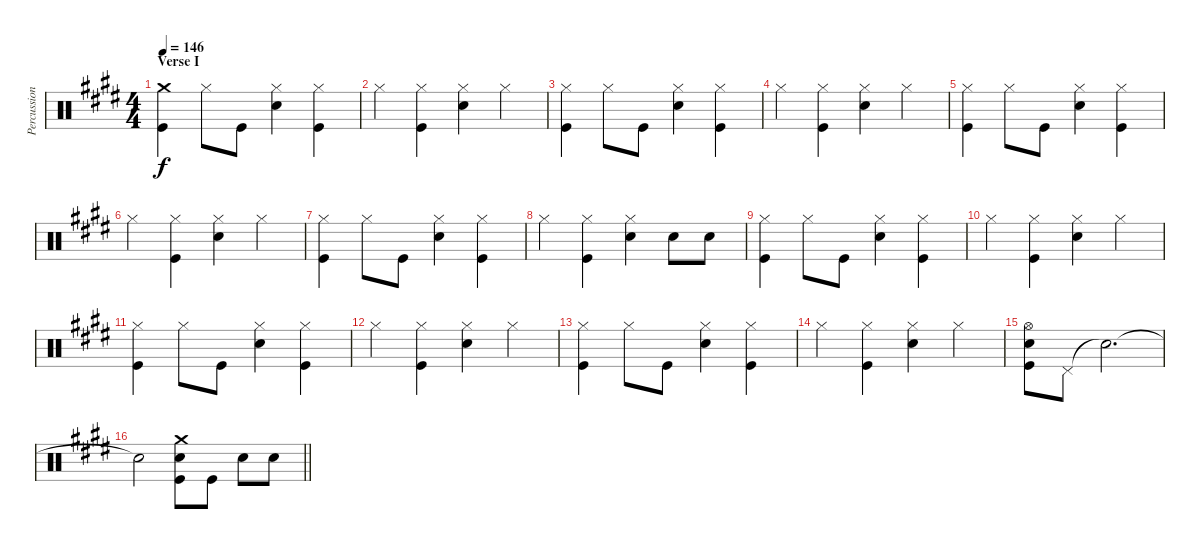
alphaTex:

\track ("Percussion" "Percussion") {instrument percussion}
\staff {score}
\articulation defaults
\ts (4 4)
\section ("" "Verse I")
\tempo 146
\clef neutral
\ks e
("Crash medium (hit)" "Kick (hit)").4{dy f} "Hi-Hat (closed)".8 "Kick (hit)".8 ("Hi-Hat (closed)" "Electric Snare (hit)").4 ("Hi-Hat (closed)" "Kick (hit)").4 |
"Hi-Hat (closed)".4 ("Hi-Hat (closed)" "Kick (hit)").4 ("Hi-Hat (closed)" "Electric Snare (hit)").4 "Hi-Hat (closed)".4 |
("Hi-Hat (closed)" "Kick (hit)").4 "Hi-Hat (closed)".8 "Kick (hit)".8 ("Hi-Hat (closed)" "Electric Snare (hit)").4 ("Hi-Hat (closed)" "Kick (hit)").4 |
"Hi-Hat (closed)".4 ("Hi-Hat (closed)" "Kick (hit)").4 ("Hi-Hat (closed)" "Electric Snare (hit)").4 "Hi-Hat (closed)".4 |
("Hi-Hat (closed)" "Kick (hit)").4 "Hi-Hat (closed)".8 "Kick (hit)".8 ("Hi-Hat (closed)" "Electric Snare (hit)").4 ("Hi-Hat (closed)" "Kick (hit)").4 |
"Hi-Hat (closed)".4 ("Hi-Hat (closed)" "Kick (hit)").4 ("Hi-Hat (closed)" "Electric Snare (hit)").4 "Hi-Hat (closed)".4 |
("Hi-Hat (closed)" "Kick (hit)").4 "Hi-Hat (closed)".8 "Kick (hit)".8 ("Hi-Hat (closed)" "Electric Snare (hit)").4 ("Hi-Hat (closed)" "Kick (hit)").4 |
"Hi-Hat (closed)".4 ("Hi-Hat (closed)" "Kick (hit)").4 ("Hi-Hat (closed)" "Electric Snare (hit)").4 "Electric Snare (hit)".8 "Electric Snare (hit)".8 |
("Hi-Hat (closed)" "Kick (hit)").4 "Hi-Hat (closed)".8 "Kick (hit)".8 ("Hi-Hat (closed)" "Electric Snare (hit)").4 ("Hi-Hat (closed)" "Kick (hit)").4 |
"Hi-Hat (closed)".4 ("Hi-Hat (closed)" "Kick (hit)").4 ("Hi-Hat (closed)" "Electric Snare (hit)").4 "Hi-Hat (closed)".4 |
("Hi-Hat (closed)" "Kick (hit)").4 "Hi-Hat (closed)".8 "Kick (hit)".8 ("Hi-Hat (closed)" "Electric Snare (hit)").4 ("Hi-Hat (closed)" "Kick (hit)").4 |
"Hi-Hat (closed)".4 ("Hi-Hat (closed)" "Kick (hit)").4 ("Hi-Hat (closed)" "Electric Snare (hit)").4 "Hi-Hat (closed)".4 |
("Hi-Hat (closed)" "Kick (hit)").4 "Hi-Hat (closed)".8 "Kick (hit)".8 ("Hi-Hat (closed)" "Electric Snare (hit)").4 ("Hi-Hat (closed)" "Kick (hit)").4 |
"Hi-Hat (closed)".4 ("Hi-Hat (closed)" "Kick (hit)").4 ("Hi-Hat (closed)" "Electric Snare (hit)").4 "Hi-Hat (closed)".4 |
("Hi-Hat (open)" "Electric Snare (hit)" "Kick (hit)").8 "Pedal Hi-Hat (hit)".8 "Snare (hit)"{t}.2{d} |
\barLineRight lightlight "Snare (hit)"{t}.2
("Crash medium (hit)" "Electric Snare (hit)" "Kick (hit)").8 "Kick (hit)".8 "Electric Snare (hit)".8 "Electric Snare (hit)".8
